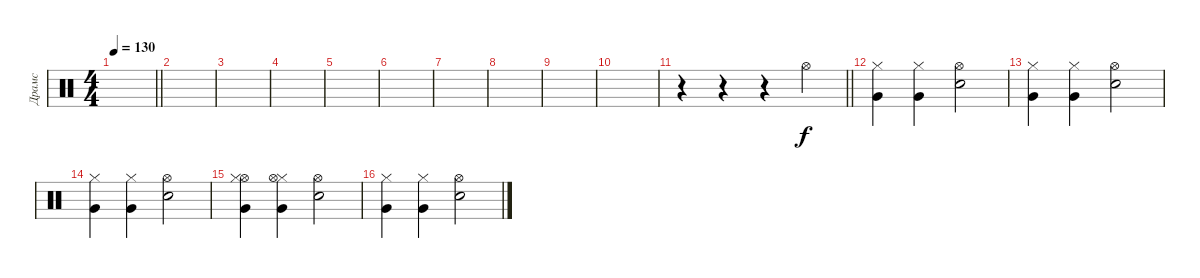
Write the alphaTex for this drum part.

\track ("Драмс" "Драмс") {instrument percussion}
\staff {score}
\articulation defaults
\ts (4 4)
\tempo 130
\clef neutral
\barLineRight lightlight
\ks c
|
|
|
|
|
|
|
|
|
|
\barLineRight lightlight
r.4 r.4 r.4 "Hi-Hat (open)".4 |
("Hi-Hat (closed)" "Very Low Tom (hit)").4 ("Very Low Tom (hit)" "Hi-Hat (closed)").4 ("Snare (hit) 2" "Hi-Hat (open)").2 |
("Hi-Hat (closed)" "Very Low Tom (hit)").4 ("Very Low Tom (hit)" "Hi-Hat (closed)").4 ("Snare (hit) 2" "Hi-Hat (open)").2 |
("Hi-Hat (closed)" "Very Low Tom (hit)").4 ("Very Low Tom (hit)" "Hi-Hat (closed)").4 ("Snare (hit) 2" "Hi-Hat (open)").2 |
("Hi-Hat (open)" "Hi-Hat (closed)" "Very Low Tom (hit)").4 ("Very Low Tom (hit)" "Hi-Hat (closed)" "Hi-Hat (open)").4 ("Snare (hit) 2" "Hi-Hat (open)").2 |
("Hi-Hat (closed)" "Very Low Tom (hit)").4 ("Very Low Tom (hit)" "Hi-Hat (closed)").4 ("Snare (hit) 2" "Hi-Hat (open)").2
